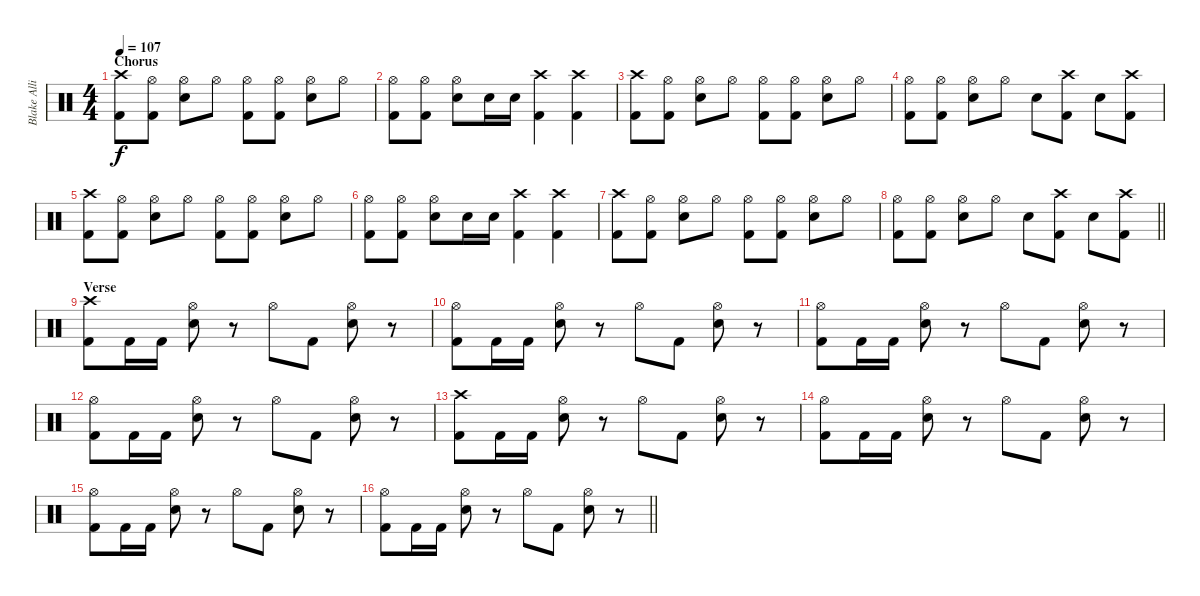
\track ("Blake Allison (Drums)" "Blake Alli") {instrument percussion}
\staff {score}
\articulation defaults
\ts (4 4)
\section ("" "Chorus")
\tempo 107
\clef neutral
\ks c
("Crash high (hit)" "Kick (hit) 2").8{dy f} ("Hi-Hat (open)" "Kick (hit) 2").8 ("Hi-Hat (open)" "Electric Snare (hit)").8 "Hi-Hat (open)".8 ("Hi-Hat (open)" "Kick (hit) 2").8 ("Hi-Hat (open)" "Kick (hit) 2").8 ("Hi-Hat (open)" "Electric Snare (hit)").8 "Hi-Hat (open)".8 |
("Hi-Hat (open)" "Kick (hit) 2").8 ("Hi-Hat (open)" "Kick (hit) 2").8 ("Hi-Hat (open)" "Electric Snare (hit)").8 "Electric Snare (hit)".16 "Electric Snare (hit)".16 ("Crash high (hit)" "Kick (hit) 2").4 ("Crash high (hit)" "Kick (hit) 2").4 |
("Crash high (hit)" "Kick (hit) 2").8 ("Hi-Hat (open)" "Kick (hit) 2").8 ("Hi-Hat (open)" "Electric Snare (hit)").8 "Hi-Hat (open)".8 ("Hi-Hat (open)" "Kick (hit) 2").8 ("Hi-Hat (open)" "Kick (hit) 2").8 ("Hi-Hat (open)" "Electric Snare (hit)").8 "Hi-Hat (open)".8 |
("Hi-Hat (open)" "Kick (hit) 2").8 ("Hi-Hat (open)" "Kick (hit) 2").8 ("Hi-Hat (open)" "Electric Snare (hit)").8 "Hi-Hat (open)".8 "Electric Snare (hit)".8 ("Crash high (hit)" "Kick (hit) 2").8 "Electric Snare (hit)".8 ("Crash high (hit)" "Kick (hit) 2").8 |
("Crash high (hit)" "Kick (hit) 2").8 ("Hi-Hat (open)" "Kick (hit) 2").8 ("Hi-Hat (open)" "Electric Snare (hit)").8 "Hi-Hat (open)".8 ("Hi-Hat (open)" "Kick (hit) 2").8 ("Hi-Hat (open)" "Kick (hit) 2").8 ("Hi-Hat (open)" "Electric Snare (hit)").8 "Hi-Hat (open)".8 |
("Hi-Hat (open)" "Kick (hit) 2").8 ("Hi-Hat (open)" "Kick (hit) 2").8 ("Hi-Hat (open)" "Electric Snare (hit)").8 "Electric Snare (hit)".16 "Electric Snare (hit)".16 ("Crash high (hit)" "Kick (hit) 2").4 ("Crash high (hit)" "Kick (hit) 2").4 |
("Crash high (hit)" "Kick (hit) 2").8 ("Hi-Hat (open)" "Kick (hit) 2").8 ("Hi-Hat (open)" "Electric Snare (hit)").8 "Hi-Hat (open)".8 ("Hi-Hat (open)" "Kick (hit) 2").8 ("Hi-Hat (open)" "Kick (hit) 2").8 ("Hi-Hat (open)" "Electric Snare (hit)").8 "Hi-Hat (open)".8 |
\barLineRight lightlight
("Hi-Hat (open)" "Kick (hit) 2").8 ("Hi-Hat (open)" "Kick (hit) 2").8 ("Hi-Hat (open)" "Electric Snare (hit)").8 "Hi-Hat (open)".8 "Electric Snare (hit)".8 ("Crash high (hit)" "Kick (hit) 2").8 "Electric Snare (hit)".8 ("Crash high (hit)" "Kick (hit) 2").8 |
\section ("" "Verse")
("Crash high (hit)" "Kick (hit) 2").8 "Kick (hit) 2".16 "Kick (hit) 2".16 ("Hi-Hat (open)" "Electric Snare (hit)").8 r.8 "Hi-Hat (open)".8 "Kick (hit) 2".8 ("Hi-Hat (open)" "Electric Snare (hit)").8 r.8 |
("Hi-Hat (open)" "Kick (hit) 2").8 "Kick (hit) 2".16 "Kick (hit) 2".16 ("Hi-Hat (open)" "Electric Snare (hit)").8 r.8 "Hi-Hat (open)".8 "Kick (hit) 2".8 ("Hi-Hat (open)" "Electric Snare (hit)").8 r.8 |
("Hi-Hat (open)" "Kick (hit) 2").8 "Kick (hit) 2".16 "Kick (hit) 2".16 ("Hi-Hat (open)" "Electric Snare (hit)").8 r.8 "Hi-Hat (open)".8 "Kick (hit) 2".8 ("Hi-Hat (open)" "Electric Snare (hit)").8 r.8 |
("Hi-Hat (open)" "Kick (hit) 2").8 "Kick (hit) 2".16 "Kick (hit) 2".16 ("Hi-Hat (open)" "Electric Snare (hit)").8 r.8 "Hi-Hat (open)".8 "Kick (hit) 2".8 ("Hi-Hat (open)" "Electric Snare (hit)").8 r.8 |
("Crash high (hit)" "Kick (hit) 2").8 "Kick (hit) 2".16 "Kick (hit) 2".16 ("Hi-Hat (open)" "Electric Snare (hit)").8 r.8 "Hi-Hat (open)".8 "Kick (hit) 2".8 ("Hi-Hat (open)" "Electric Snare (hit)").8 r.8 |
("Hi-Hat (open)" "Kick (hit) 2").8 "Kick (hit) 2".16 "Kick (hit) 2".16 ("Hi-Hat (open)" "Electric Snare (hit)").8 r.8 "Hi-Hat (open)".8 "Kick (hit) 2".8 ("Hi-Hat (open)" "Electric Snare (hit)").8 r.8 |
("Hi-Hat (open)" "Kick (hit) 2").8 "Kick (hit) 2".16 "Kick (hit) 2".16 ("Hi-Hat (open)" "Electric Snare (hit)").8 r.8 "Hi-Hat (open)".8 "Kick (hit) 2".8 ("Hi-Hat (open)" "Electric Snare (hit)").8 r.8 |
\barLineRight lightlight
("Hi-Hat (open)" "Kick (hit) 2").8 "Kick (hit) 2".16 "Kick (hit) 2".16 ("Hi-Hat (open)" "Electric Snare (hit)").8 r.8 "Hi-Hat (open)".8 "Kick (hit) 2".8 ("Hi-Hat (open)" "Electric Snare (hit)").8 r.8
